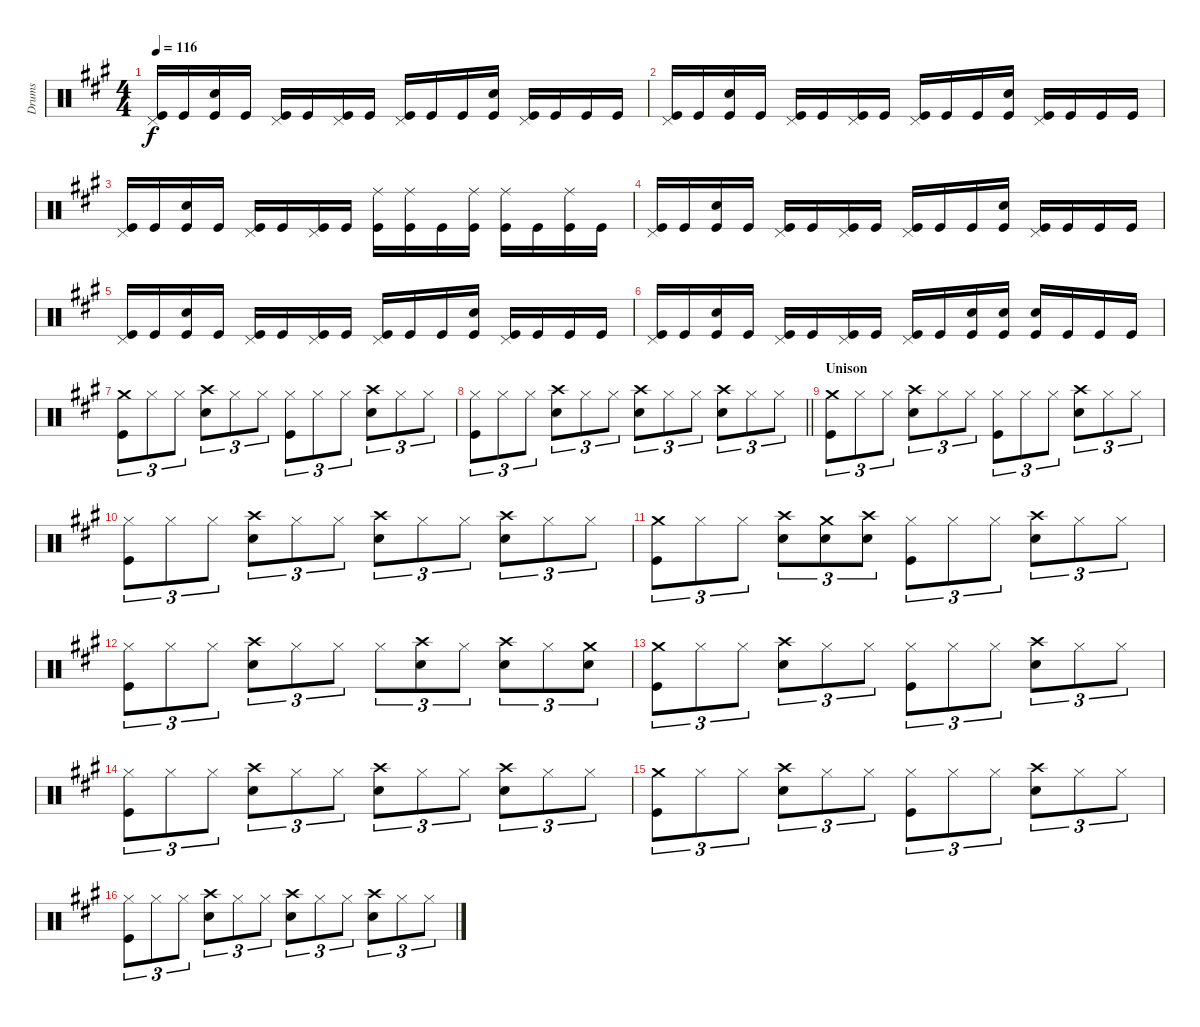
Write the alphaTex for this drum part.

\track ("Drums" "Drums") {instrument percussion}
\staff {score}
\articulation defaults
\ts (4 4)
\tempo 116
\clef neutral
\ks a
("Pedal Hi-Hat (hit)" "Kick (hit)").16{dy f} "Kick (hit)".16 ("Snare (hit) 2" "Kick (hit)").16 "Kick (hit)".16 ("Pedal Hi-Hat (hit)" "Kick (hit)").16 "Kick (hit)".16 ("Pedal Hi-Hat (hit)" "Kick (hit)").16 "Kick (hit)".16 ("Pedal Hi-Hat (hit)" "Kick (hit)").16 "Kick (hit)".16 "Kick (hit)".16 ("Snare (hit) 2" "Kick (hit)").16 ("Pedal Hi-Hat (hit)" "Kick (hit)").16 "Kick (hit)".16 "Kick (hit)".16 "Kick (hit)".16 |
("Pedal Hi-Hat (hit)" "Kick (hit)").16 "Kick (hit)".16 ("Snare (hit) 2" "Kick (hit)").16 "Kick (hit)".16 ("Pedal Hi-Hat (hit)" "Kick (hit)").16 "Kick (hit)".16 ("Pedal Hi-Hat (hit)" "Kick (hit)").16 "Kick (hit)".16 ("Pedal Hi-Hat (hit)" "Kick (hit)").16 "Kick (hit)".16 "Kick (hit)".16 ("Snare (hit) 2" "Kick (hit)").16 ("Pedal Hi-Hat (hit)" "Kick (hit)").16 "Kick (hit)".16 "Kick (hit)".16 "Kick (hit)".16 |
("Pedal Hi-Hat (hit)" "Kick (hit)").16 "Kick (hit)".16 ("Snare (hit) 2" "Kick (hit)").16 "Kick (hit)".16 ("Pedal Hi-Hat (hit)" "Kick (hit)").16 "Kick (hit)".16 ("Pedal Hi-Hat (hit)" "Kick (hit)").16 "Kick (hit)".16 ("Ride (middle)" "Kick (hit)").16 ("Ride (middle)" "Kick (hit)").16 "Kick (hit)".16 ("Ride (middle)" "Kick (hit)").16 ("Ride (middle)" "Kick (hit)").16 "Kick (hit)".16 ("Ride (middle)" "Kick (hit)").16 "Kick (hit)".16 |
("Pedal Hi-Hat (hit)" "Kick (hit)").16 "Kick (hit)".16 ("Snare (hit) 2" "Kick (hit)").16 "Kick (hit)".16 ("Pedal Hi-Hat (hit)" "Kick (hit)").16 "Kick (hit)".16 ("Pedal Hi-Hat (hit)" "Kick (hit)").16 "Kick (hit)".16 ("Pedal Hi-Hat (hit)" "Kick (hit)").16 "Kick (hit)".16 "Kick (hit)".16 ("Snare (hit) 2" "Kick (hit)").16 ("Pedal Hi-Hat (hit)" "Kick (hit)").16 "Kick (hit)".16 "Kick (hit)".16 "Kick (hit)".16 |
("Pedal Hi-Hat (hit)" "Kick (hit)").16 "Kick (hit)".16 ("Snare (hit) 2" "Kick (hit)").16 "Kick (hit)".16 ("Pedal Hi-Hat (hit)" "Kick (hit)").16 "Kick (hit)".16 ("Pedal Hi-Hat (hit)" "Kick (hit)").16 "Kick (hit)".16 ("Pedal Hi-Hat (hit)" "Kick (hit)").16 "Kick (hit)".16 "Kick (hit)".16 ("Snare (hit) 2" "Kick (hit)").16 ("Pedal Hi-Hat (hit)" "Kick (hit)").16 "Kick (hit)".16 "Kick (hit)".16 "Kick (hit)".16 |
("Pedal Hi-Hat (hit)" "Kick (hit)").16 "Kick (hit)".16 ("Snare (hit) 2" "Kick (hit)").16 "Kick (hit)".16 ("Pedal Hi-Hat (hit)" "Kick (hit)").16 "Kick (hit)".16 ("Pedal Hi-Hat (hit)" "Kick (hit)").16 "Kick (hit)".16 ("Pedal Hi-Hat (hit)" "Kick (hit)").16 "Kick (hit)".16 ("Snare (hit) 2" "Kick (hit)").16 ("Snare (hit) 2" "Kick (hit)").16 ("Snare (hit) 2" "Kick (hit)").16 "Kick (hit)".16 "Kick (hit)".16 "Kick (hit)".16 |
("Crash medium (hit)" "Kick (hit)").8{tu (3 2)} "Hi-Hat (closed)".8{tu (3 2)} "Hi-Hat (closed)".8{tu (3 2)} ("Crash high (hit)" "Snare (hit) 2").8{tu (3 2)} "Hi-Hat (closed)".8{tu (3 2)} "Hi-Hat (closed)".8{tu (3 2)} ("Hi-Hat (closed)" "Kick (hit)").8{tu (3 2)} "Hi-Hat (closed)".8{tu (3 2)} "Hi-Hat (closed)".8{tu (3 2)} ("Crash high (hit)" "Snare (hit) 2").8{tu (3 2)} "Hi-Hat (closed)".8{tu (3 2)} "Hi-Hat (closed)".8{tu (3 2)} |
\barLineRight lightlight
("Hi-Hat (closed)" "Kick (hit)").8{tu (3 2)} "Hi-Hat (closed)".8{tu (3 2)} "Hi-Hat (closed)".8{tu (3 2)} ("Crash high (hit)" "Snare (hit) 2").8{tu (3 2)} "Hi-Hat (closed)".8{tu (3 2)} "Hi-Hat (closed)".8{tu (3 2)} ("Crash high (hit)" "Snare (hit) 2").8{tu (3 2)} "Hi-Hat (closed)".8{tu (3 2)} "Hi-Hat (closed)".8{tu (3 2)} ("Crash high (hit)" "Snare (hit) 2").8{tu (3 2)} "Hi-Hat (closed)".8{tu (3 2)} "Hi-Hat (closed)".8{tu (3 2)} |
\section ("" "Unison")
("Crash medium (hit)" "Kick (hit)").8{tu (3 2)} "Hi-Hat (closed)".8{tu (3 2)} "Hi-Hat (closed)".8{tu (3 2)} ("Crash high (hit)" "Snare (hit) 2").8{tu (3 2)} "Hi-Hat (closed)".8{tu (3 2)} "Hi-Hat (closed)".8{tu (3 2)} ("Hi-Hat (closed)" "Kick (hit)").8{tu (3 2)} "Hi-Hat (closed)".8{tu (3 2)} "Hi-Hat (closed)".8{tu (3 2)} ("Crash high (hit)" "Snare (hit) 2").8{tu (3 2)} "Hi-Hat (closed)".8{tu (3 2)} "Hi-Hat (closed)".8{tu (3 2)} |
("Hi-Hat (closed)" "Kick (hit)").8{tu (3 2)} "Hi-Hat (closed)".8{tu (3 2)} "Hi-Hat (closed)".8{tu (3 2)} ("Crash high (hit)" "Snare (hit) 2").8{tu (3 2)} "Hi-Hat (closed)".8{tu (3 2)} "Hi-Hat (closed)".8{tu (3 2)} ("Crash high (hit)" "Snare (hit) 2").8{tu (3 2)} "Hi-Hat (closed)".8{tu (3 2)} "Hi-Hat (closed)".8{tu (3 2)} ("Crash high (hit)" "Snare (hit) 2").8{tu (3 2)} "Hi-Hat (closed)".8{tu (3 2)} "Hi-Hat (closed)".8{tu (3 2)} |
("Crash medium (hit)" "Kick (hit)").8{tu (3 2)} "Hi-Hat (closed)".8{tu (3 2)} "Hi-Hat (closed)".8{tu (3 2)} ("Crash high (hit)" "Snare (hit) 2").8{tu (3 2)} ("Crash medium (hit)" "Snare (hit) 2").8{tu (3 2)} ("Crash high (hit)" "Snare (hit) 2").8{tu (3 2)} ("Hi-Hat (closed)" "Kick (hit)").8{tu (3 2)} "Hi-Hat (closed)".8{tu (3 2)} "Hi-Hat (closed)".8{tu (3 2)} ("Crash high (hit)" "Snare (hit) 2").8{tu (3 2)} "Hi-Hat (closed)".8{tu (3 2)} "Hi-Hat (closed)".8{tu (3 2)} |
("Hi-Hat (closed)" "Kick (hit)").8{tu (3 2)} "Hi-Hat (closed)".8{tu (3 2)} "Hi-Hat (closed)".8{tu (3 2)} ("Crash high (hit)" "Snare (hit) 2").8{tu (3 2)} "Hi-Hat (closed)".8{tu (3 2)} "Hi-Hat (closed)".8{tu (3 2)} "Hi-Hat (closed)".8{tu (3 2)} ("Crash high (hit)" "Snare (hit) 2").8{tu (3 2)} "Hi-Hat (closed)".8{tu (3 2)} ("Crash high (hit)" "Snare (hit) 2").8{tu (3 2)} "Hi-Hat (closed)".8{tu (3 2)} ("Crash medium (hit)" "Snare (hit) 2").8{tu (3 2)} |
("Crash medium (hit)" "Kick (hit)").8{tu (3 2)} "Hi-Hat (closed)".8{tu (3 2)} "Hi-Hat (closed)".8{tu (3 2)} ("Crash high (hit)" "Snare (hit) 2").8{tu (3 2)} "Hi-Hat (closed)".8{tu (3 2)} "Hi-Hat (closed)".8{tu (3 2)} ("Hi-Hat (closed)" "Kick (hit)").8{tu (3 2)} "Hi-Hat (closed)".8{tu (3 2)} "Hi-Hat (closed)".8{tu (3 2)} ("Crash high (hit)" "Snare (hit) 2").8{tu (3 2)} "Hi-Hat (closed)".8{tu (3 2)} "Hi-Hat (closed)".8{tu (3 2)} |
("Hi-Hat (closed)" "Kick (hit)").8{tu (3 2)} "Hi-Hat (closed)".8{tu (3 2)} "Hi-Hat (closed)".8{tu (3 2)} ("Crash high (hit)" "Snare (hit) 2").8{tu (3 2)} "Hi-Hat (closed)".8{tu (3 2)} "Hi-Hat (closed)".8{tu (3 2)} ("Crash high (hit)" "Snare (hit) 2").8{tu (3 2)} "Hi-Hat (closed)".8{tu (3 2)} "Hi-Hat (closed)".8{tu (3 2)} ("Crash high (hit)" "Snare (hit) 2").8{tu (3 2)} "Hi-Hat (closed)".8{tu (3 2)} "Hi-Hat (closed)".8{tu (3 2)} |
("Crash medium (hit)" "Kick (hit)").8{tu (3 2)} "Hi-Hat (closed)".8{tu (3 2)} "Hi-Hat (closed)".8{tu (3 2)} ("Crash high (hit)" "Snare (hit) 2").8{tu (3 2)} "Hi-Hat (closed)".8{tu (3 2)} "Hi-Hat (closed)".8{tu (3 2)} ("Hi-Hat (closed)" "Kick (hit)").8{tu (3 2)} "Hi-Hat (closed)".8{tu (3 2)} "Hi-Hat (closed)".8{tu (3 2)} ("Crash high (hit)" "Snare (hit) 2").8{tu (3 2)} "Hi-Hat (closed)".8{tu (3 2)} "Hi-Hat (closed)".8{tu (3 2)} |
("Hi-Hat (closed)" "Kick (hit)").8{tu (3 2)} "Hi-Hat (closed)".8{tu (3 2)} "Hi-Hat (closed)".8{tu (3 2)} ("Crash high (hit)" "Snare (hit) 2").8{tu (3 2)} "Hi-Hat (closed)".8{tu (3 2)} "Hi-Hat (closed)".8{tu (3 2)} ("Crash high (hit)" "Snare (hit) 2").8{tu (3 2)} "Hi-Hat (closed)".8{tu (3 2)} "Hi-Hat (closed)".8{tu (3 2)} ("Crash high (hit)" "Snare (hit) 2").8{tu (3 2)} "Hi-Hat (closed)".8{tu (3 2)} "Hi-Hat (closed)".8{tu (3 2)}
